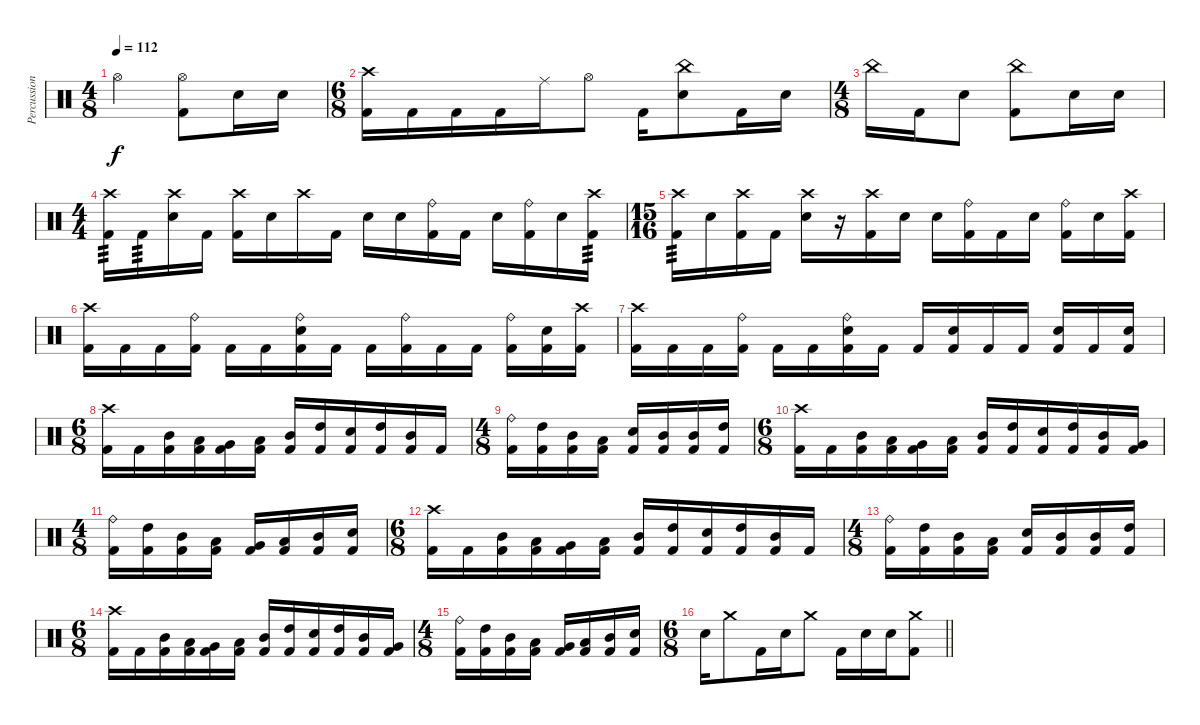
\track ("Percussion" "Percussion") {instrument percussion}
\staff {score}
\articulation defaults
\ts (4 8)
\tempo 112
\clef neutral
\ks c "Hi-Hat (open)".4{dy f}
("Hi-Hat (open)" "Kick (hit) 2").8 "Electric Snare (hit)".16 "Electric Snare (hit)".16 |
\ts (6 8)
("Crash high (hit)" "Kick (hit) 2").16 "Kick (hit) 2".16 "Kick (hit) 2".16 "Kick (hit) 2".16 "Ride (middle)".16 "Hi-Hat (open)".8 "Kick (hit) 2".16 ("China (hit)" "Electric Snare (hit)").8 "Kick (hit) 2".16 "Electric Snare (hit)".16 |
\ts (4 8)
"China (hit)".16 "Kick (hit) 2".16 "Electric Snare (hit)".8 ("China (hit)" "Kick (hit) 2").8 "Electric Snare (hit)".16 "Electric Snare (hit)".16 |
\ts (4 4)
("Kick (hit) 2" "Crash high (hit)").16{tp 3} "Kick (hit) 2".16{tp 3} ("Crash high (hit)" "Electric Snare (hit)").16 "Kick (hit) 2".16 ("Kick (hit) 2" "Crash high (hit)").16 "Electric Snare (hit)".16 "Crash high (hit)".16 "Kick (hit) 2".16 "Electric Snare (hit)".16 "Electric Snare (hit)".16 ("Ride (bell)" "Kick (hit) 2").16 "Kick (hit) 2".16 "Electric Snare (hit)".16 ("Kick (hit) 2" "Ride (bell)").16 "Electric Snare (hit)".16 ("Crash high (hit)" "Kick (hit) 2").16{tp 3} |
\ts (15 16)
("Kick (hit) 2" "Crash high (hit)").16{tp 3} "Electric Snare (hit)".16 ("Kick (hit) 2" "Crash high (hit)").16 "Kick (hit) 2".16 ("Electric Snare (hit)" "Crash high (hit)").16 r.16 ("Kick (hit) 2" "Crash high (hit)").16 "Electric Snare (hit)".16 "Electric Snare (hit)".16 ("Ride (bell)" "Kick (hit) 2").16 "Kick (hit) 2".16 "Electric Snare (hit)".16 ("Kick (hit) 2" "Ride (bell)").16 "Electric Snare (hit)".16 ("Crash high (hit)" "Kick (hit) 2").16 |
("Crash high (hit)" "Kick (hit) 2").16 "Kick (hit) 2".16 "Kick (hit) 2".16 ("Kick (hit) 2" "Ride (bell)").16 "Kick (hit) 2".16 "Kick (hit) 2".16 ("Ride (bell)" "Electric Snare (hit)" "Kick (hit) 2").16 "Kick (hit) 2".16 "Kick (hit) 2".16 ("Kick (hit) 2" "Ride (bell)").16 "Kick (hit) 2".16 "Kick (hit) 2".16 ("Kick (hit) 2" "Ride (bell)").16 ("Kick (hit) 2" "Electric Snare (hit)").16 ("Kick (hit) 2" "Crash high (hit)").16 |
("Crash high (hit)" "Kick (hit) 2").16 "Kick (hit) 2".16 "Kick (hit) 2".16 ("Kick (hit) 2" "Ride (bell)").16 "Kick (hit) 2".16 "Kick (hit) 2".16 ("Kick (hit) 2" "Ride (bell)" "Electric Snare (hit)").16 "Kick (hit) 2".16 "Kick (hit) 2".16 ("Kick (hit) 2" "Electric Snare (hit)").16 "Kick (hit) 2".16 "Kick (hit) 2".16 ("Kick (hit) 2" "Electric Snare (hit)").16 "Kick (hit) 2".16 ("Kick (hit) 2" "Electric Snare (hit)").16 |
\ts (6 8)
("Crash high (hit)" "Kick (hit) 2").16 "Kick (hit) 2".16 ("Kick (hit) 2" "Mid Tom (hit)").16 ("Kick (hit) 2" "Low Tom (hit)").16 ("Kick (hit) 2" "Very Low Tom (hit)").16 ("Kick (hit) 2" "Low Tom (hit)").16 ("Kick (hit) 2" "Mid Tom (hit)").16 ("Kick (hit) 2" "High Tom (hit)").16 ("Kick (hit) 2" "Electric Snare (hit)").16 ("Kick (hit) 2" "High Tom (hit)").16 ("Kick (hit) 2" "Mid Tom (hit)").16 "Kick (hit) 2".16 |
\ts (4 8)
("Ride (bell)" "Kick (hit) 2").16 ("Kick (hit) 2" "High Tom (hit)").16 ("Kick (hit) 2" "Mid Tom (hit)").16 ("Kick (hit) 2" "Low Tom (hit)").16 ("Kick (hit) 2" "Electric Snare (hit)").16 ("Kick (hit) 2" "Mid Tom (hit)").16 ("Kick (hit) 2" "Mid Tom (hit)").16 ("Kick (hit) 2" "High Tom (hit)").16 |
\ts (6 8)
("Crash high (hit)" "Kick (hit) 2").16 "Kick (hit) 2".16 ("Kick (hit) 2" "Mid Tom (hit)").16 ("Kick (hit) 2" "Low Tom (hit)").16 ("Kick (hit) 2" "Very Low Tom (hit)").16 ("Kick (hit) 2" "Low Tom (hit)").16 ("Kick (hit) 2" "Mid Tom (hit)").16 ("Kick (hit) 2" "High Tom (hit)").16 ("Kick (hit) 2" "Electric Snare (hit)").16 ("Kick (hit) 2" "High Tom (hit)").16 ("Kick (hit) 2" "Mid Tom (hit)").16 ("Kick (hit) 2" "Very Low Tom (hit)").16 |
\ts (4 8)
("Ride (bell)" "Kick (hit) 2").16 ("Kick (hit) 2" "High Tom (hit)").16 ("Kick (hit) 2" "Mid Tom (hit)").16 ("Kick (hit) 2" "Low Tom (hit)").16 ("Kick (hit) 2" "Very Low Tom (hit)").16 ("Kick (hit) 2" "Low Tom (hit)").16 ("Kick (hit) 2" "Mid Tom (hit)").16 ("Kick (hit) 2" "Electric Snare (hit)").16 |
\ts (6 8)
("Crash high (hit)" "Kick (hit) 2").16 "Kick (hit) 2".16 ("Kick (hit) 2" "Mid Tom (hit)").16 ("Kick (hit) 2" "Low Tom (hit)").16 ("Kick (hit) 2" "Very Low Tom (hit)").16 ("Kick (hit) 2" "Low Tom (hit)").16 ("Kick (hit) 2" "Mid Tom (hit)").16 ("Kick (hit) 2" "High Tom (hit)").16 ("Kick (hit) 2" "Electric Snare (hit)").16 ("Kick (hit) 2" "High Tom (hit)").16 ("Kick (hit) 2" "Mid Tom (hit)").16 "Kick (hit) 2".16 |
\ts (4 8)
("Ride (bell)" "Kick (hit) 2").16 ("Kick (hit) 2" "High Tom (hit)").16 ("Kick (hit) 2" "Mid Tom (hit)").16 ("Kick (hit) 2" "Low Tom (hit)").16 ("Kick (hit) 2" "Electric Snare (hit)").16 ("Kick (hit) 2" "Mid Tom (hit)").16 ("Kick (hit) 2" "Mid Tom (hit)").16 ("Kick (hit) 2" "High Tom (hit)").16 |
\ts (6 8)
("Crash high (hit)" "Kick (hit) 2").16 "Kick (hit) 2".16 ("Kick (hit) 2" "Mid Tom (hit)").16 ("Kick (hit) 2" "Low Tom (hit)").16 ("Kick (hit) 2" "Very Low Tom (hit)").16 ("Kick (hit) 2" "Low Tom (hit)").16 ("Kick (hit) 2" "Mid Tom (hit)").16 ("Kick (hit) 2" "High Tom (hit)").16 ("Kick (hit) 2" "Electric Snare (hit)").16 ("Kick (hit) 2" "High Tom (hit)").16 ("Kick (hit) 2" "Mid Tom (hit)").16 ("Kick (hit) 2" "Very Low Tom (hit)").16 |
\ts (4 8)
("Ride (bell)" "Kick (hit) 2").16 ("Kick (hit) 2" "High Tom (hit)").16 ("Kick (hit) 2" "Mid Tom (hit)").16 ("Kick (hit) 2" "Low Tom (hit)").16 ("Kick (hit) 2" "Very Low Tom (hit)").16 ("Kick (hit) 2" "Low Tom (hit)").16 ("Kick (hit) 2" "Mid Tom (hit)").16 ("Kick (hit) 2" "Electric Snare (hit)").16 |
\ts (6 8)
\barLineRight lightlight "Electric Snare (hit)".16 "Crash medium (hit)".8 "Kick (hit) 2".16 "Electric Snare (hit)".16 "Crash medium (hit)".8 "Kick (hit) 2".16 "Electric Snare (hit)".16 "Electric Snare (hit)".16
("Crash medium (hit)" "Kick (hit) 2").8
